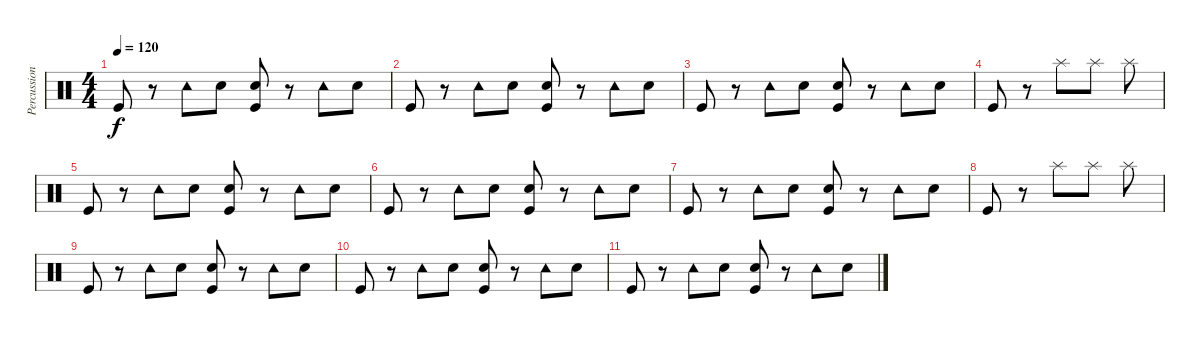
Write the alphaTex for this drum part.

\track ("Percussion" "Percussion") {instrument percussion}
\staff {score}
\articulation defaults
\ts (4 4)
\tempo 120
\clef neutral
\ks c "Kick (hit)".8{dy f}
r.8 "Tambourine (hit)".8 "Metronome (bell)".8 ("Snare (hit) 2" "Kick (hit)").8 r.8 "Tambourine (hit)".8 "Metronome (bell)".8 |
"Kick (hit)".8 r.8 "Tambourine (hit)".8 "Metronome (bell)".8 ("Snare (hit) 2" "Kick (hit)").8 r.8 "Tambourine (hit)".8 "Metronome (bell)".8 |
"Kick (hit)".8 r.8 "Tambourine (hit)".8 "Metronome (bell)".8 ("Snare (hit) 2" "Kick (hit)").8 r.8 "Tambourine (hit)".8 "Metronome (bell)".8 |
"Kick (hit)".8 r.8 "Splash (hit)".8 "Splash (hit)".8 "Splash (hit)".8 |
"Kick (hit)".8 r.8 "Tambourine (hit)".8 "Metronome (bell)".8 ("Snare (hit) 2" "Kick (hit)").8 r.8 "Tambourine (hit)".8 "Metronome (bell)".8 |
"Kick (hit)".8 r.8 "Tambourine (hit)".8 "Metronome (bell)".8 ("Snare (hit) 2" "Kick (hit)").8 r.8 "Tambourine (hit)".8 "Metronome (bell)".8 |
"Kick (hit)".8 r.8 "Tambourine (hit)".8 "Metronome (bell)".8 ("Snare (hit) 2" "Kick (hit)").8 r.8 "Tambourine (hit)".8 "Metronome (bell)".8 |
"Kick (hit)".8 r.8 "Splash (hit)".8 "Splash (hit)".8 "Splash (hit)".8 |
"Kick (hit)".8 r.8 "Tambourine (hit)".8 "Metronome (bell)".8 ("Snare (hit) 2" "Kick (hit)").8 r.8 "Tambourine (hit)".8 "Metronome (bell)".8 |
"Kick (hit)".8 r.8 "Tambourine (hit)".8 "Metronome (bell)".8 ("Snare (hit) 2" "Kick (hit)").8 r.8 "Tambourine (hit)".8 "Metronome (bell)".8 |
"Kick (hit)".8 r.8 "Tambourine (hit)".8 "Metronome (bell)".8 ("Snare (hit) 2" "Kick (hit)").8 r.8 "Tambourine (hit)".8 "Metronome (bell)".8
